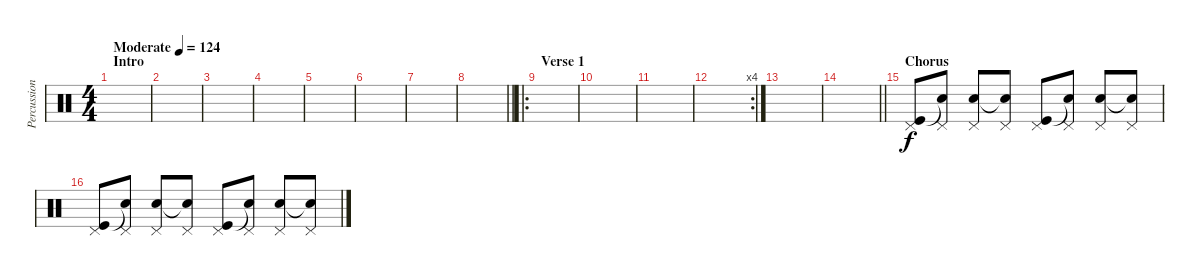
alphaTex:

\track ("Percussion" "Percussion") {instrument percussion}
\staff {score}
\articulation defaults
\ts (4 4)
\section ("" "Intro")
\tempo (124 "Moderate")
\clef neutral
\ks c
|
|
|
|
|
|
|
\barLineRight lightlight
|
\ro
\section ("" "Verse 1")
|
|
|
\rc 4
|
|
\barLineRight lightlight
|
\section ("" "Chorus")
("Kick (hit)" "Pedal Hi-Hat (hit)").8 ("Snare (hit)"{t} "Pedal Hi-Hat (hit)").8 ("Snare (hit) 2" "Pedal Hi-Hat (hit)").8 ("Snare (hit)"{t} "Pedal Hi-Hat (hit)").8 ("Kick (hit)" "Pedal Hi-Hat (hit)").8 ("Snare (hit)"{t} "Pedal Hi-Hat (hit)").8 ("Snare (hit) 2" "Pedal Hi-Hat (hit)").8 ("Snare (hit)"{t} "Pedal Hi-Hat (hit)").8 |
("Kick (hit)" "Pedal Hi-Hat (hit)").8 ("Snare (hit)"{t} "Pedal Hi-Hat (hit)").8 ("Snare (hit) 2" "Pedal Hi-Hat (hit)").8 ("Snare (hit)"{t} "Pedal Hi-Hat (hit)").8 ("Kick (hit)" "Pedal Hi-Hat (hit)").8 ("Snare (hit)"{t} "Pedal Hi-Hat (hit)").8 ("Snare (hit) 2" "Pedal Hi-Hat (hit)").8 ("Snare (hit)"{t} "Pedal Hi-Hat (hit)").8
